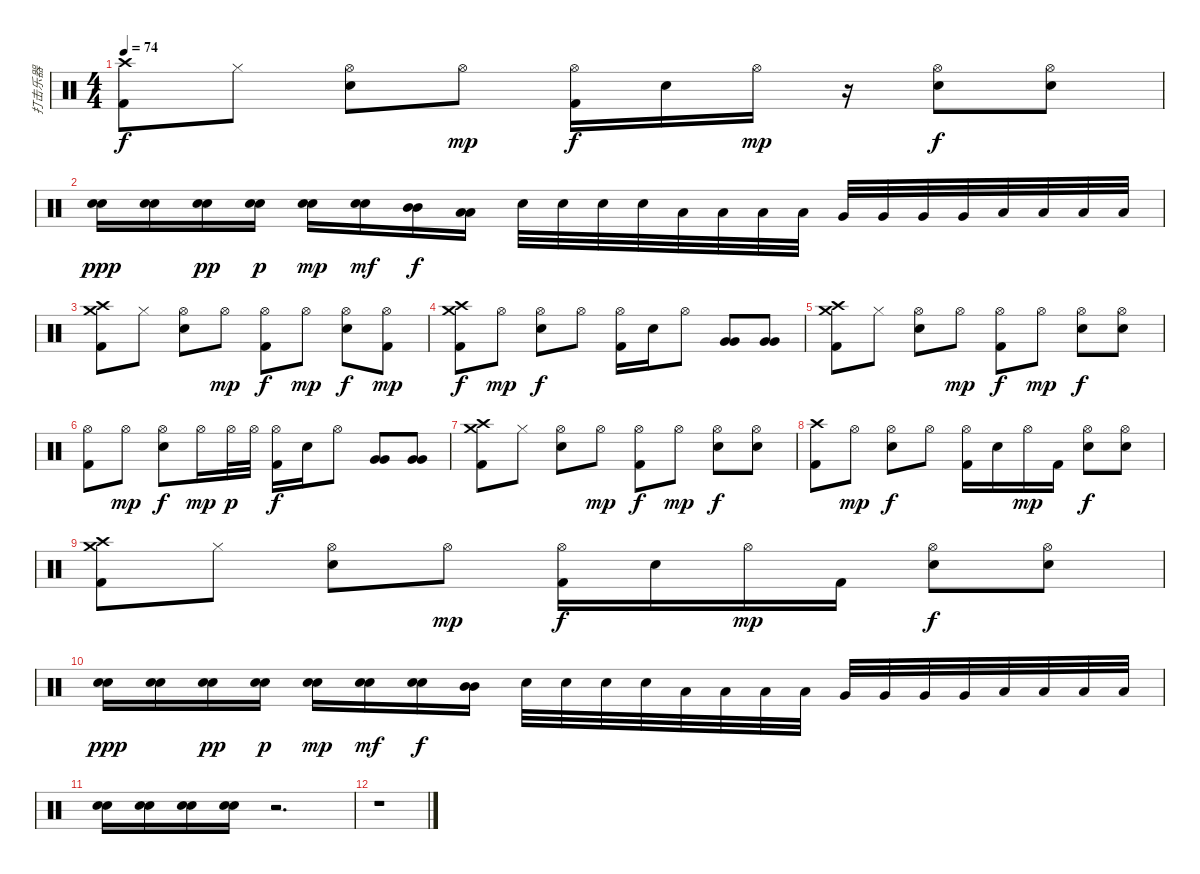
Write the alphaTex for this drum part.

\track ("打击乐器" "打击乐器") {instrument percussion}
\staff {score}
\articulation defaults
\ts (4 4)
\tempo 74
\clef neutral
\ks c
("Crash high (hit)" "Kick (hit) 2").8{dy f} "Hi-Hat (closed)".8 ("Electric Snare (hit)" "Hi-Hat (open)").8 "Hi-Hat (open)".8{dy mp} ("Hi-Hat (open)" "Kick (hit) 2").16{dy f} "Electric Snare (hit)".16 "Hi-Hat (open)".16{dy mp} r.16 ("Electric Snare (hit)" "Hi-Hat (open)").8{dy f} ("Electric Snare (hit)" "Hi-Hat (open)").8 |
("Electric Snare (hit)" "Electric Snare (hit)").16{bd 60 dy ppp} ("Electric Snare (hit)" "Electric Snare (hit)").16{bd 60} ("Electric Snare (hit)" "Electric Snare (hit)").16{bd 60 dy pp} ("Electric Snare (hit)" "Electric Snare (hit)").16{bd 60 dy p} ("Electric Snare (hit)" "Electric Snare (hit)").16{bd 60 dy mp} ("Electric Snare (hit)" "Electric Snare (hit)").16{bd 60 dy mf} ("Mid Tom (hit)" "Mid Tom (hit)").16{bd 60 dy f} ("Low Tom (hit)" "Low Tom (hit)").16{bd 60} "Electric Snare (hit)".32 "Electric Snare (hit)".32 "Electric Snare (hit)".32 "Electric Snare (hit)".32 "Low Tom (hit)".32 "Low Tom (hit)".32 "Low Tom (hit)".32 "Low Tom (hit)".32 "Very Low Tom (hit)".32 "Very Low Tom (hit)".32 "Very Low Tom (hit)".32 "Very Low Tom (hit)".32 "Low Floor Tom (hit)".32 "Low Floor Tom (hit)".32 "Low Floor Tom (hit)".32 "Low Floor Tom (hit)".32 |
("Crash high (hit)" "Crash medium (hit)" "Kick (hit) 2").8 "Hi-Hat (closed)".8 ("Electric Snare (hit)" "Hi-Hat (open)").8 "Hi-Hat (open)".8{dy mp} ("Hi-Hat (open)" "Kick (hit) 2").8{dy f} "Hi-Hat (open)".8{dy mp} ("Electric Snare (hit)" "Hi-Hat (open)").8{dy f} ("Hi-Hat (open)" "Kick (hit) 2").8{dy mp} |
("Crash high (hit)" "Crash medium (hit)" "Kick (hit) 2").8{dy f} "Hi-Hat (open)".8{dy mp} ("Electric Snare (hit)" "Hi-Hat (open)").8{dy f} "Hi-Hat (open)".8 ("Hi-Hat (open)" "Kick (hit) 2").16 "Electric Snare (hit)".16 "Hi-Hat (open)".8 ("Very Low Tom (hit)" "Very Low Tom (hit)").8{bd 60} ("Very Low Tom (hit)" "Very Low Tom (hit)").8{bd 60} |
("Crash high (hit)" "Crash medium (hit)" "Kick (hit) 2").8 "Hi-Hat (closed)".8 ("Electric Snare (hit)" "Hi-Hat (open)").8 "Hi-Hat (open)".8{dy mp} ("Hi-Hat (open)" "Kick (hit) 2").8{dy f} "Hi-Hat (open)".8{dy mp} ("Electric Snare (hit)" "Hi-Hat (open)").8{dy f} ("Electric Snare (hit)" "Hi-Hat (open)").8 |
("Hi-Hat (open)" "Kick (hit) 2").8 "Hi-Hat (open)".8{dy mp} ("Electric Snare (hit)" "Hi-Hat (open)").8{dy f} "Hi-Hat (open)".16{dy mp} "Hi-Hat (open)".32{dy p} "Hi-Hat (open)".32 ("Hi-Hat (open)" "Kick (hit) 2").16{dy f} "Electric Snare (hit)".16 "Hi-Hat (open)".8 ("Very Low Tom (hit)" "Very Low Tom (hit)").8{bd 60} ("Very Low Tom (hit)" "Very Low Tom (hit)").8{bd 60} |
("Crash high (hit)" "Crash medium (hit)" "Kick (hit) 2").8 "Hi-Hat (closed)".8 ("Electric Snare (hit)" "Hi-Hat (open)").8 "Hi-Hat (open)".8{dy mp} ("Hi-Hat (open)" "Kick (hit) 2").8{dy f} "Hi-Hat (open)".8{dy mp} ("Electric Snare (hit)" "Hi-Hat (open)").8{dy f} ("Electric Snare (hit)" "Hi-Hat (open)").8 |
("Crash high (hit)" "Kick (hit) 2").8 "Hi-Hat (open)".8{dy mp} ("Electric Snare (hit)" "Hi-Hat (open)").8{dy f} "Hi-Hat (open)".8 ("Hi-Hat (open)" "Kick (hit) 2").16 "Electric Snare (hit)".16 "Hi-Hat (open)".16{dy mp} "Kick (hit) 2".16 ("Electric Snare (hit)" "Hi-Hat (open)").8{dy f} ("Electric Snare (hit)" "Hi-Hat (open)").8 |
("Crash high (hit)" "Crash medium (hit)" "Kick (hit) 2").8 "Hi-Hat (closed)".8 ("Electric Snare (hit)" "Hi-Hat (open)").8 "Hi-Hat (open)".8{dy mp} ("Hi-Hat (open)" "Kick (hit) 2").16{dy f} "Electric Snare (hit)".16 "Hi-Hat (open)".16{dy mp} "Kick (hit) 2".16 ("Electric Snare (hit)" "Hi-Hat (open)").8{dy f} ("Electric Snare (hit)" "Hi-Hat (open)").8 |
("Electric Snare (hit)" "Electric Snare (hit)").16{bd 60 dy ppp} ("Electric Snare (hit)" "Electric Snare (hit)").16{bd 60} ("Electric Snare (hit)" "Electric Snare (hit)").16{bd 60 dy pp} ("Electric Snare (hit)" "Electric Snare (hit)").16{bd 60 dy p} ("Electric Snare (hit)" "Electric Snare (hit)").16{bd 60 dy mp} ("Electric Snare (hit)" "Electric Snare (hit)").16{bd 60 dy mf} ("Electric Snare (hit)" "Electric Snare (hit)").16{bd 60 dy f} ("Mid Tom (hit)" "Mid Tom (hit)").16{bd 60} "Electric Snare (hit)".32 "Electric Snare (hit)".32 "Electric Snare (hit)".32 "Electric Snare (hit)".32 "Low Tom (hit)".32 "Low Tom (hit)".32 "Low Tom (hit)".32 "Low Tom (hit)".32 "Very Low Tom (hit)".32 "Very Low Tom (hit)".32 "Very Low Tom (hit)".32 "Very Low Tom (hit)".32 "Low Floor Tom (hit)".32 "Low Floor Tom (hit)".32 "Low Floor Tom (hit)".32 "Low Floor Tom (hit)".32 |
("Electric Snare (hit)" "Electric Snare (hit)").16{bd 30} ("Electric Snare (hit)" "Electric Snare (hit)").16{bd 30} ("Electric Snare (hit)" "Electric Snare (hit)").16{bd 30} ("Electric Snare (hit)" "Electric Snare (hit)").16{bd 30} r.2{d} |
r.1
